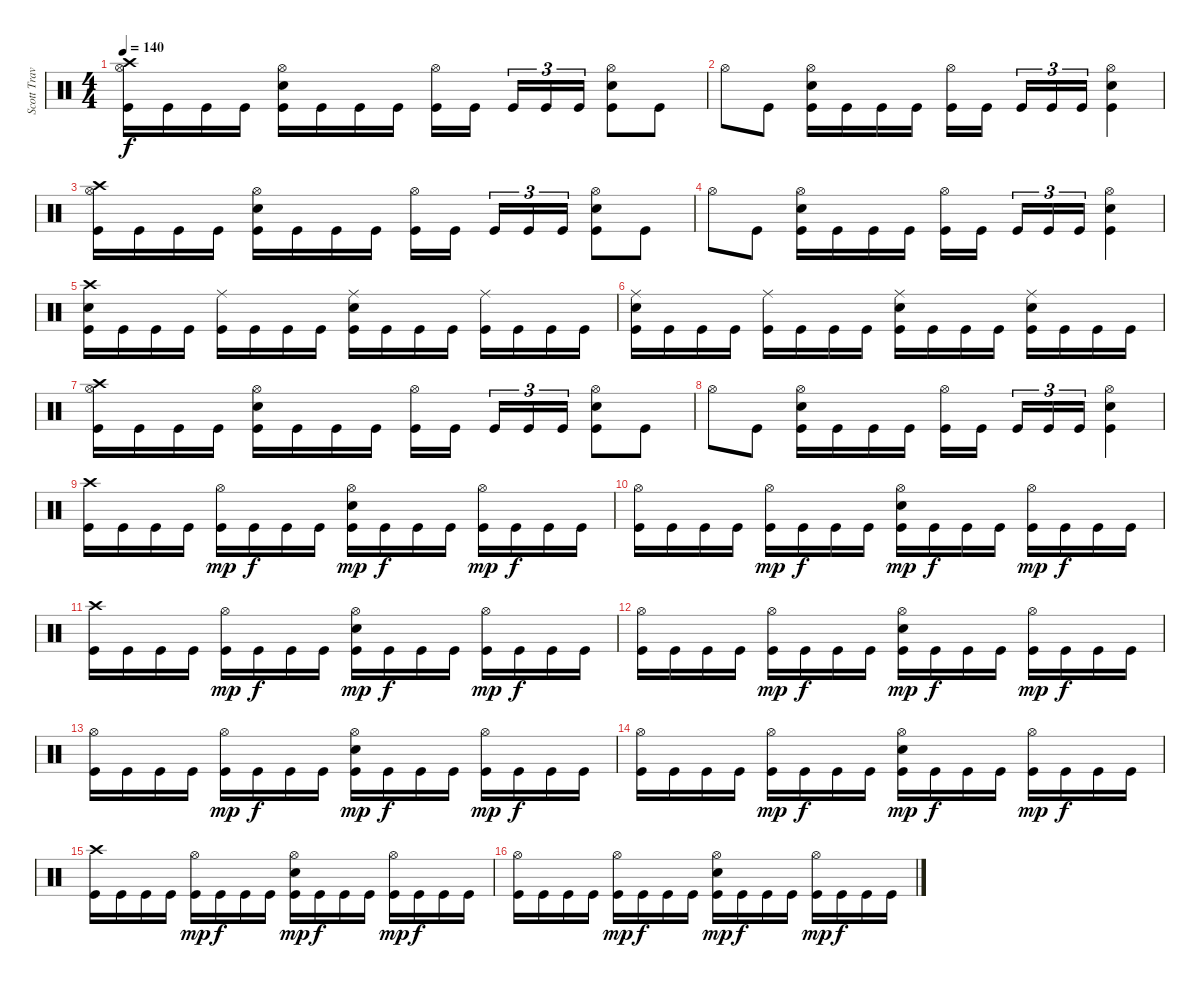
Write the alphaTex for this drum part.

\track ("Scott Travis" "Scott Trav") {instrument percussion}
\staff {score}
\articulation defaults
\ts (4 4)
\tempo 140
\clef neutral
\ks c
("Hi-Hat (open)" "Crash high (hit)" "Kick (hit)").16{dy f} "Kick (hit)".16 "Kick (hit)".16 "Kick (hit)".16 ("Hi-Hat (open)" "Snare (hit) 2" "Kick (hit)").16 "Kick (hit)".16 "Kick (hit)".16 "Kick (hit)".16 ("Hi-Hat (open)" "Kick (hit)").16 "Kick (hit)".16{beam splitsecondary} "Kick (hit)".16{tu (3 2)} "Kick (hit)".16{tu (3 2)} "Kick (hit)".16{tu (3 2)} ("Hi-Hat (open)" "Snare (hit) 2" "Kick (hit)").8 "Kick (hit)".8 |
"Hi-Hat (open)".8 "Kick (hit)".8 ("Hi-Hat (open)" "Snare (hit) 2" "Kick (hit)").16 "Kick (hit)".16 "Kick (hit)".16 "Kick (hit)".16 ("Hi-Hat (open)" "Kick (hit)").16 "Kick (hit)".16{beam splitsecondary} "Kick (hit)".16{tu (3 2)} "Kick (hit)".16{tu (3 2)} "Kick (hit)".16{tu (3 2)} ("Hi-Hat (open)" "Snare (hit) 2" "Kick (hit)").4 |
("Hi-Hat (open)" "Crash high (hit)" "Kick (hit)").16 "Kick (hit)".16 "Kick (hit)".16 "Kick (hit)".16 ("Hi-Hat (open)" "Snare (hit) 2" "Kick (hit)").16 "Kick (hit)".16 "Kick (hit)".16 "Kick (hit)".16 ("Hi-Hat (open)" "Kick (hit)").16 "Kick (hit)".16{beam splitsecondary} "Kick (hit)".16{tu (3 2)} "Kick (hit)".16{tu (3 2)} "Kick (hit)".16{tu (3 2)} ("Hi-Hat (open)" "Snare (hit) 2" "Kick (hit)").8 "Kick (hit)".8 |
"Hi-Hat (open)".8 "Kick (hit)".8 ("Hi-Hat (open)" "Snare (hit) 2" "Kick (hit)").16 "Kick (hit)".16 "Kick (hit)".16 "Kick (hit)".16 ("Hi-Hat (open)" "Kick (hit)").16 "Kick (hit)".16{beam splitsecondary} "Kick (hit)".16{tu (3 2)} "Kick (hit)".16{tu (3 2)} "Kick (hit)".16{tu (3 2)} ("Hi-Hat (open)" "Snare (hit) 2" "Kick (hit)").4 |
("Crash high (hit)" "Snare (hit) 2" "Kick (hit)").16 "Kick (hit)".16 "Kick (hit)".16 "Kick (hit)".16 ("Ride (middle)" "Kick (hit)").16 "Kick (hit)".16 "Kick (hit)".16 "Kick (hit)".16 ("Ride (middle)" "Snare (hit) 2" "Kick (hit)").16 "Kick (hit)".16 "Kick (hit)".16 "Kick (hit)".16 ("Ride (middle)" "Kick (hit)").16 "Kick (hit)".16 "Kick (hit)".16 "Kick (hit)".16 |
("Ride (middle)" "Snare (hit) 2" "Kick (hit)").16 "Kick (hit)".16 "Kick (hit)".16 "Kick (hit)".16 ("Ride (middle)" "Kick (hit)").16 "Kick (hit)".16 "Kick (hit)".16 "Kick (hit)".16 ("Ride (middle)" "Snare (hit) 2" "Kick (hit)").16 "Kick (hit)".16 "Kick (hit)".16 "Kick (hit)".16 ("Ride (middle)" "Snare (hit) 2" "Kick (hit)").16 "Kick (hit)".16 "Kick (hit)".16 "Kick (hit)".16 |
("Hi-Hat (open)" "Crash high (hit)" "Kick (hit)").16 "Kick (hit)".16 "Kick (hit)".16 "Kick (hit)".16 ("Hi-Hat (open)" "Snare (hit) 2" "Kick (hit)").16 "Kick (hit)".16 "Kick (hit)".16 "Kick (hit)".16 ("Hi-Hat (open)" "Kick (hit)").16 "Kick (hit)".16{beam splitsecondary} "Kick (hit)".16{tu (3 2)} "Kick (hit)".16{tu (3 2)} "Kick (hit)".16{tu (3 2)} ("Hi-Hat (open)" "Snare (hit) 2" "Kick (hit)").8 "Kick (hit)".8 |
"Hi-Hat (open)".8 "Kick (hit)".8 ("Hi-Hat (open)" "Snare (hit) 2" "Kick (hit)").16 "Kick (hit)".16 "Kick (hit)".16 "Kick (hit)".16 ("Hi-Hat (open)" "Kick (hit)").16 "Kick (hit)".16{beam splitsecondary} "Kick (hit)".16{tu (3 2)} "Kick (hit)".16{tu (3 2)} "Kick (hit)".16{tu (3 2)} ("Hi-Hat (open)" "Snare (hit) 2" "Kick (hit)").4 |
("Crash high (hit)" "Kick (hit)").16 "Kick (hit)".16 "Kick (hit)".16 "Kick (hit)".16 ("Hi-Hat (open)" "Kick (hit)").16{dy mp} "Kick (hit)".16{dy f} "Kick (hit)".16 "Kick (hit)".16 ("Hi-Hat (open)" "Snare (hit) 2" "Kick (hit)").16{dy mp} "Kick (hit)".16{dy f} "Kick (hit)".16 "Kick (hit)".16 ("Hi-Hat (open)" "Kick (hit)").16{dy mp} "Kick (hit)".16{dy f} "Kick (hit)".16 "Kick (hit)".16 |
("Hi-Hat (open)" "Kick (hit)").16 "Kick (hit)".16 "Kick (hit)".16 "Kick (hit)".16 ("Hi-Hat (open)" "Kick (hit)").16{dy mp} "Kick (hit)".16{dy f} "Kick (hit)".16 "Kick (hit)".16 ("Hi-Hat (open)" "Snare (hit) 2" "Kick (hit)").16{dy mp} "Kick (hit)".16{dy f} "Kick (hit)".16 "Kick (hit)".16 ("Hi-Hat (open)" "Kick (hit)").16{dy mp} "Kick (hit)".16{dy f} "Kick (hit)".16 "Kick (hit)".16 |
("Crash high (hit)" "Kick (hit)").16 "Kick (hit)".16 "Kick (hit)".16 "Kick (hit)".16 ("Hi-Hat (open)" "Kick (hit)").16{dy mp} "Kick (hit)".16{dy f} "Kick (hit)".16 "Kick (hit)".16 ("Hi-Hat (open)" "Snare (hit) 2" "Kick (hit)").16{dy mp} "Kick (hit)".16{dy f} "Kick (hit)".16 "Kick (hit)".16 ("Hi-Hat (open)" "Kick (hit)").16{dy mp} "Kick (hit)".16{dy f} "Kick (hit)".16 "Kick (hit)".16 |
("Hi-Hat (open)" "Kick (hit)").16 "Kick (hit)".16 "Kick (hit)".16 "Kick (hit)".16 ("Hi-Hat (open)" "Kick (hit)").16{dy mp} "Kick (hit)".16{dy f} "Kick (hit)".16 "Kick (hit)".16 ("Hi-Hat (open)" "Snare (hit) 2" "Kick (hit)").16{dy mp} "Kick (hit)".16{dy f} "Kick (hit)".16 "Kick (hit)".16 ("Hi-Hat (open)" "Kick (hit)").16{dy mp} "Kick (hit)".16{dy f} "Kick (hit)".16 "Kick (hit)".16 |
("Hi-Hat (open)" "Kick (hit)").16 "Kick (hit)".16 "Kick (hit)".16 "Kick (hit)".16 ("Hi-Hat (open)" "Kick (hit)").16{dy mp} "Kick (hit)".16{dy f} "Kick (hit)".16 "Kick (hit)".16 ("Hi-Hat (open)" "Snare (hit) 2" "Kick (hit)").16{dy mp} "Kick (hit)".16{dy f} "Kick (hit)".16 "Kick (hit)".16 ("Hi-Hat (open)" "Kick (hit)").16{dy mp} "Kick (hit)".16{dy f} "Kick (hit)".16 "Kick (hit)".16 |
("Hi-Hat (open)" "Kick (hit)").16 "Kick (hit)".16 "Kick (hit)".16 "Kick (hit)".16 ("Hi-Hat (open)" "Kick (hit)").16{dy mp} "Kick (hit)".16{dy f} "Kick (hit)".16 "Kick (hit)".16 ("Hi-Hat (open)" "Snare (hit) 2" "Kick (hit)").16{dy mp} "Kick (hit)".16{dy f} "Kick (hit)".16 "Kick (hit)".16 ("Hi-Hat (open)" "Kick (hit)").16{dy mp} "Kick (hit)".16{dy f} "Kick (hit)".16 "Kick (hit)".16 |
("Crash high (hit)" "Kick (hit)").16 "Kick (hit)".16 "Kick (hit)".16 "Kick (hit)".16 ("Hi-Hat (open)" "Kick (hit)").16{dy mp} "Kick (hit)".16{dy f} "Kick (hit)".16 "Kick (hit)".16 ("Hi-Hat (open)" "Snare (hit) 2" "Kick (hit)").16{dy mp} "Kick (hit)".16{dy f} "Kick (hit)".16 "Kick (hit)".16 ("Hi-Hat (open)" "Kick (hit)").16{dy mp} "Kick (hit)".16{dy f} "Kick (hit)".16 "Kick (hit)".16 |
("Hi-Hat (open)" "Kick (hit)").16 "Kick (hit)".16 "Kick (hit)".16 "Kick (hit)".16 ("Hi-Hat (open)" "Kick (hit)").16{dy mp} "Kick (hit)".16{dy f} "Kick (hit)".16 "Kick (hit)".16 ("Hi-Hat (open)" "Snare (hit) 2" "Kick (hit)").16{dy mp} "Kick (hit)".16{dy f} "Kick (hit)".16 "Kick (hit)".16 ("Hi-Hat (open)" "Kick (hit)").16{dy mp} "Kick (hit)".16{dy f} "Kick (hit)".16 "Kick (hit)".16
